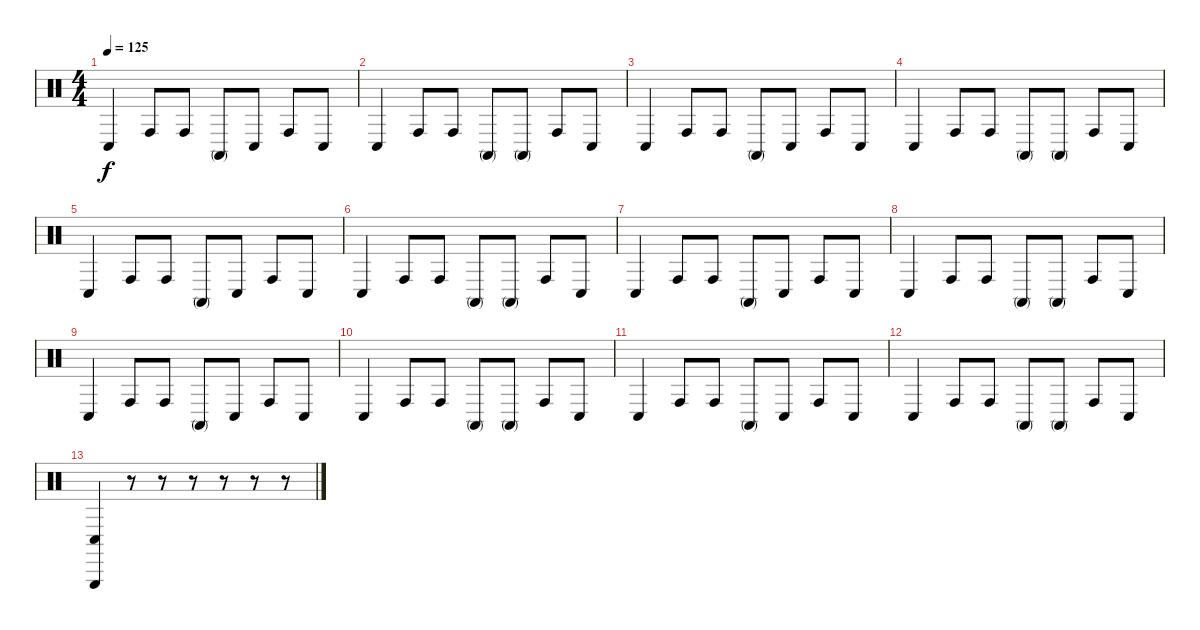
\track "" {instrument percussion}
\staff {score}
\articulation defaults
\ts (4 4)
\tempo 125
\clef neutral
\ks c "Conga low (hit)".4{dy f} "Conga high (hit)".8 "Conga high (hit)".8 "Conga high (mute)".8 "Conga low (hit)".8 "Conga high (hit)".8 "Conga low (hit)".8
|
"Conga low (hit)".4 "Conga high (hit)".8 "Conga high (hit)".8 "Conga high (mute)".8 "Conga high (mute)".8 "Conga high (hit)".8 "Conga low (hit)".8 |
"Conga low (hit)".4 "Conga high (hit)".8 "Conga high (hit)".8 "Conga high (mute)".8 "Conga low (hit)".8 "Conga high (hit)".8 "Conga low (hit)".8 |
"Conga low (hit)".4 "Conga high (hit)".8 "Conga high (hit)".8 "Conga high (mute)".8 "Conga high (mute)".8 "Conga high (hit)".8 "Conga low (hit)".8 |
"Conga low (hit)".4 "Conga high (hit)".8 "Conga high (hit)".8 "Conga high (mute)".8 "Conga low (hit)".8 "Conga high (hit)".8 "Conga low (hit)".8 |
"Conga low (hit)".4 "Conga high (hit)".8 "Conga high (hit)".8 "Conga high (mute)".8 "Conga high (mute)".8 "Conga high (hit)".8 "Conga low (hit)".8 |
"Conga low (hit)".4 "Conga high (hit)".8 "Conga high (hit)".8 "Conga high (mute)".8 "Conga low (hit)".8 "Conga high (hit)".8 "Conga low (hit)".8 |
"Conga low (hit)".4 "Conga high (hit)".8 "Conga high (hit)".8 "Conga high (mute)".8 "Conga high (mute)".8 "Conga high (hit)".8 "Conga low (hit)".8 |
"Conga low (hit)".4 "Conga high (hit)".8 "Conga high (hit)".8 "Conga high (mute)".8 "Conga low (hit)".8 "Conga high (hit)".8 "Conga low (hit)".8 |
"Conga low (hit)".4 "Conga high (hit)".8 "Conga high (hit)".8 "Conga high (mute)".8 "Conga high (mute)".8 "Conga high (hit)".8 "Conga low (hit)".8 |
"Conga low (hit)".4 "Conga high (hit)".8 "Conga high (hit)".8 "Conga high (mute)".8 "Conga low (hit)".8 "Conga high (hit)".8 "Conga low (hit)".8 |
"Conga low (hit)".4 "Conga high (hit)".8 "Conga high (hit)".8 "Conga high (mute)".8 "Conga high (mute)".8 "Conga high (hit)".8 "Conga low (hit)".8 |
("Triangle (hit)" "Conga low (hit)").4 r.8 r.8 r.8 r.8 r.8 r.8
